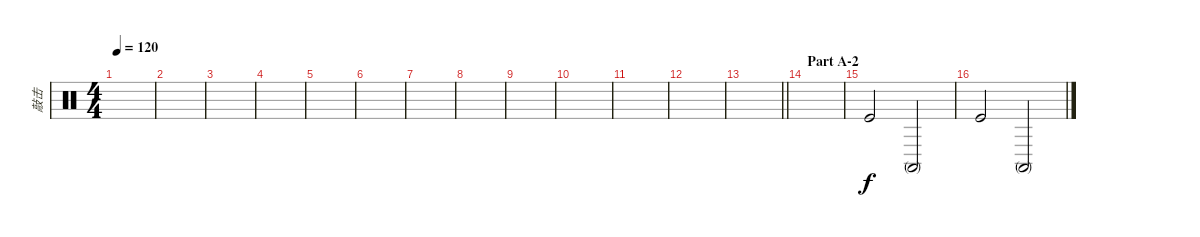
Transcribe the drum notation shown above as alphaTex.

\track ("敲击" "敲击") {instrument percussion}
\staff {score}
\articulation defaults
\ts (4 4)
\tempo 120
\clef neutral
\ks c
|
|
|
|
|
|
|
|
|
|
|
|
\barLineRight lightlight
|
\section ("" "Part A-2")
|
"Kick (hit)".2 "Conga high (mute)".2 |
"Kick (hit)".2 "Conga high (mute)".2
